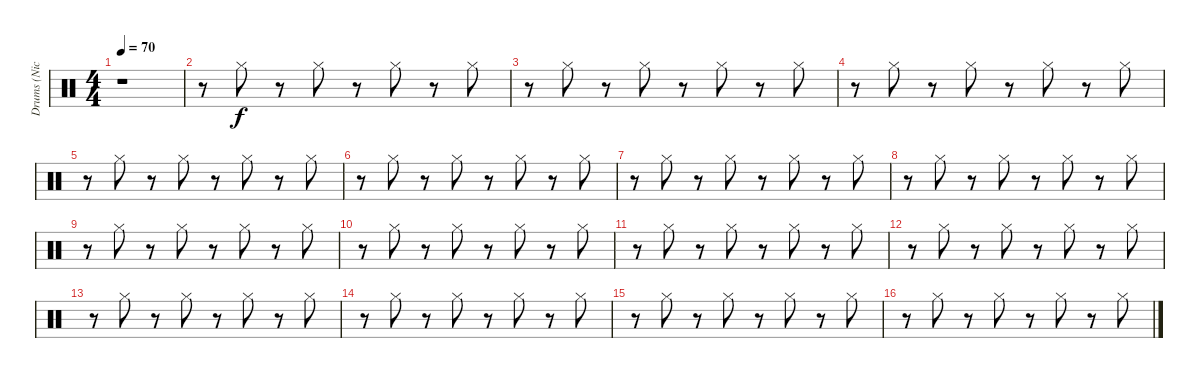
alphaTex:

\track ("Drums (Nick Mason)" "Drums (Nic") {instrument percussion}
\staff {score}
\articulation defaults
\ts (4 4)
\tempo 70
\clef neutral
\ks c
r.1{dy f} |
r.8 "Hi-Hat (closed)".8 r.8 "Hi-Hat (closed)".8 r.8 "Hi-Hat (closed)".8 r.8 "Hi-Hat (closed)".8 |
r.8 "Hi-Hat (closed)".8 r.8 "Hi-Hat (closed)".8 r.8 "Hi-Hat (closed)".8 r.8 "Hi-Hat (closed)".8 |
r.8 "Hi-Hat (closed)".8 r.8 "Hi-Hat (closed)".8 r.8 "Hi-Hat (closed)".8 r.8 "Hi-Hat (closed)".8 |
r.8 "Hi-Hat (closed)".8 r.8 "Hi-Hat (closed)".8 r.8 "Hi-Hat (closed)".8 r.8 "Hi-Hat (closed)".8 |
r.8 "Hi-Hat (closed)".8 r.8 "Hi-Hat (closed)".8 r.8 "Hi-Hat (closed)".8 r.8 "Hi-Hat (closed)".8 |
r.8 "Hi-Hat (closed)".8 r.8 "Hi-Hat (closed)".8 r.8 "Hi-Hat (closed)".8 r.8 "Hi-Hat (closed)".8 |
r.8 "Hi-Hat (closed)".8 r.8 "Hi-Hat (closed)".8 r.8 "Hi-Hat (closed)".8 r.8 "Hi-Hat (closed)".8 |
r.8 "Hi-Hat (closed)".8 r.8 "Hi-Hat (closed)".8 r.8 "Hi-Hat (closed)".8 r.8 "Hi-Hat (closed)".8 |
r.8 "Hi-Hat (closed)".8 r.8 "Hi-Hat (closed)".8 r.8 "Hi-Hat (closed)".8 r.8 "Hi-Hat (closed)".8 |
r.8 "Hi-Hat (closed)".8 r.8 "Hi-Hat (closed)".8 r.8 "Hi-Hat (closed)".8 r.8 "Hi-Hat (closed)".8 |
r.8 "Hi-Hat (closed)".8 r.8 "Hi-Hat (closed)".8 r.8 "Hi-Hat (closed)".8 r.8 "Hi-Hat (closed)".8 |
r.8 "Hi-Hat (closed)".8 r.8 "Hi-Hat (closed)".8 r.8 "Hi-Hat (closed)".8 r.8 "Hi-Hat (closed)".8 |
r.8 "Hi-Hat (closed)".8 r.8 "Hi-Hat (closed)".8 r.8 "Hi-Hat (closed)".8 r.8 "Hi-Hat (closed)".8 |
r.8 "Hi-Hat (closed)".8 r.8 "Hi-Hat (closed)".8 r.8 "Hi-Hat (closed)".8 r.8 "Hi-Hat (closed)".8 |
r.8 "Hi-Hat (closed)".8 r.8 "Hi-Hat (closed)".8 r.8 "Hi-Hat (closed)".8 r.8 "Hi-Hat (closed)".8
